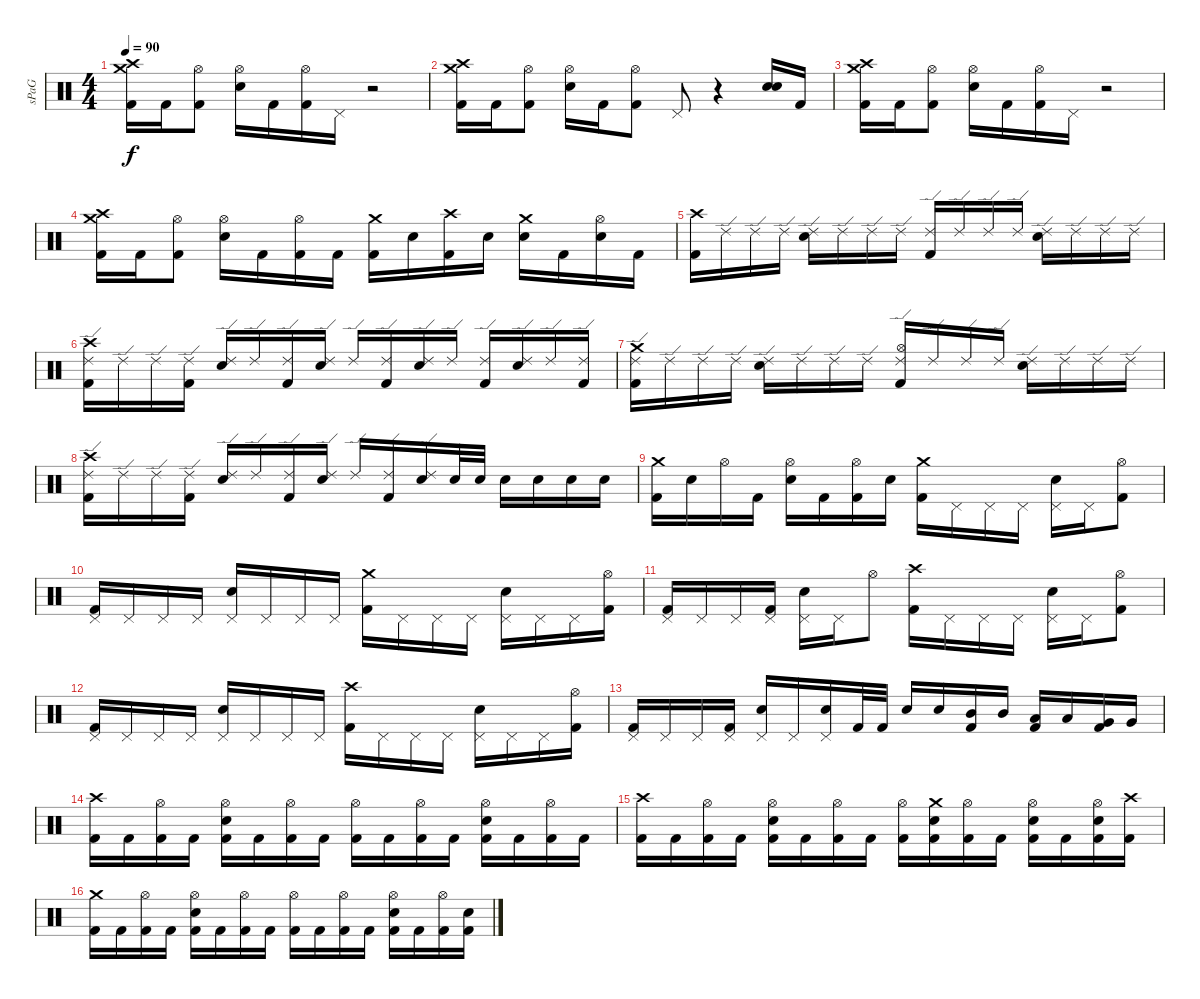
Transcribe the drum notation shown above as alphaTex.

\track ("sPaG" "sPaG") {instrument percussion}
\staff {score}
\articulation defaults
\ts (4 4)
\tempo 90
\clef neutral
\ks c
("Crash medium (hit)" "Crash high (hit)" "Kick (hit) 2").16{dy f} "Kick (hit) 2".16 ("Hi-Hat (open)" "Kick (hit) 2").8 ("Hi-Hat (open)" "Snare (hit) 2").16 "Kick (hit) 2".16 ("Hi-Hat (open)" "Kick (hit) 2").16 "Pedal Hi-Hat (hit)".16 r.2 |
("Crash medium (hit)" "Crash high (hit)" "Kick (hit) 2").16 "Kick (hit) 2".16 ("Hi-Hat (open)" "Kick (hit) 2").8 ("Hi-Hat (open)" "Snare (hit) 2").16 "Kick (hit) 2".16 ("Hi-Hat (open)" "Kick (hit) 2").8 "Pedal Hi-Hat (hit)".8 r.4 ("Snare (hit) 2" "Snare (hit) 2").16 "Kick (hit) 2".16 |
("Crash medium (hit)" "Crash high (hit)" "Kick (hit) 2").16 "Kick (hit) 2".16 ("Hi-Hat (open)" "Kick (hit) 2").8 ("Hi-Hat (open)" "Snare (hit) 2").16 "Kick (hit) 2".16 ("Hi-Hat (open)" "Kick (hit) 2").16 "Pedal Hi-Hat (hit)".16 r.2 |
("Crash medium (hit)" "Crash high (hit)" "Kick (hit) 2").16 "Kick (hit) 2".16 ("Hi-Hat (open)" "Kick (hit) 2").8 ("Hi-Hat (open)" "Snare (hit) 2").16 "Kick (hit) 2".16 ("Hi-Hat (open)" "Kick (hit) 2").16 "Kick (hit) 2".16 ("Crash medium (hit)" "Kick (hit) 2").16 "Snare (hit) 2".16 ("Crash high (hit)" "Kick (hit) 2").16 "Snare (hit) 2".16 ("Crash medium (hit)" "Snare (hit) 2").16 "Kick (hit) 2".16 ("Hi-Hat (open)" "Snare (hit) 2").16 "Kick (hit) 2".16 |
("Crash high (hit)" "Kick (hit) 2").16 "Ride (edge) 2".16 "Ride (edge) 2".16 "Ride (edge) 2".16 ("Ride (edge) 2" "Snare (hit) 2").16 "Ride (edge) 2".16 "Ride (edge) 2".16 "Ride (edge) 2".16 ("Ride (edge) 2" "Kick (hit) 2").16 "Ride (edge) 2".16 "Ride (edge) 2".16 "Ride (edge) 2".16 ("Ride (edge) 2" "Snare (hit) 2").16 "Ride (edge) 2".16 "Ride (edge) 2".16 "Ride (edge) 2".16 |
("Crash high (hit)" "Ride (edge) 2" "Kick (hit) 2").16 "Ride (edge) 2".16 "Ride (edge) 2".16 ("Ride (edge) 2" "Kick (hit) 2").16 ("Ride (edge) 2" "Snare (hit) 2").16 "Ride (edge) 2".16 ("Ride (edge) 2" "Kick (hit) 2").16 ("Ride (edge) 2" "Snare (hit) 2").16 "Ride (edge) 2".16 ("Ride (edge) 2" "Kick (hit) 2").16 ("Ride (edge) 2" "Snare (hit) 2").16 "Ride (edge) 2".16 ("Ride (edge) 2" "Kick (hit) 2").16 ("Ride (edge) 2" "Snare (hit) 2").16 "Ride (edge) 2".16 ("Ride (edge) 2" "Kick (hit) 2").16 |
("Crash medium (hit)" "Ride (edge) 2" "Kick (hit) 2").16 "Ride (edge) 2".16 "Ride (edge) 2".16 "Ride (edge) 2".16 ("Ride (edge) 2" "Snare (hit) 2").16 "Ride (edge) 2".16 "Ride (edge) 2".16 "Ride (edge) 2".16 ("Hi-Hat (open)" "Ride (edge) 2" "Kick (hit) 2").16 "Ride (edge) 2".16 "Ride (edge) 2".16 "Ride (edge) 2".16 ("Ride (edge) 2" "Snare (hit) 2").16 "Ride (edge) 2".16 "Ride (edge) 2".16 "Ride (edge) 2".16 |
("Crash high (hit)" "Ride (edge) 2" "Kick (hit) 2").16 "Ride (edge) 2".16 "Ride (edge) 2".16 ("Ride (edge) 2" "Kick (hit) 2").16 ("Ride (edge) 2" "Snare (hit) 2").16 "Ride (edge) 2".16 ("Ride (edge) 2" "Kick (hit) 2").16 ("Ride (edge) 2" "Snare (hit) 2").16 "Ride (edge) 2".16 ("Ride (edge) 2" "Kick (hit) 2").16 ("Ride (edge) 2" "Snare (hit) 2").16 "Snare (hit) 2".32 "Snare (hit) 2".32 "Snare (hit) 2".16 "Snare (hit) 2".16 "Snare (hit) 2".16 "Snare (hit) 2".16 |
("Crash medium (hit)" "Kick (hit) 2").16 "Snare (hit) 2".16 "Hi-Hat (open)".16 "Kick (hit) 2".16 ("Hi-Hat (open)" "Snare (hit) 2").16 "Kick (hit) 2".16 ("Hi-Hat (open)" "Kick (hit) 2").16 "Snare (hit) 2".16 ("Crash medium (hit)" "Kick (hit) 2").16 "Pedal Hi-Hat (hit)".16 "Pedal Hi-Hat (hit)".16 "Pedal Hi-Hat (hit)".16 ("Pedal Hi-Hat (hit)" "Snare (hit) 2").16 "Pedal Hi-Hat (hit)".16 ("Hi-Hat (open)" "Kick (hit) 2").8 |
("Pedal Hi-Hat (hit)" "Kick (hit) 2").16 "Pedal Hi-Hat (hit)".16 "Pedal Hi-Hat (hit)".16 "Pedal Hi-Hat (hit)".16 ("Pedal Hi-Hat (hit)" "Snare (hit) 2").16 "Pedal Hi-Hat (hit)".16 "Pedal Hi-Hat (hit)".16 "Pedal Hi-Hat (hit)".16 ("Crash medium (hit)" "Kick (hit) 2").16 "Pedal Hi-Hat (hit)".16 "Pedal Hi-Hat (hit)".16 "Pedal Hi-Hat (hit)".16 ("Pedal Hi-Hat (hit)" "Snare (hit) 2").16 "Pedal Hi-Hat (hit)".16 "Pedal Hi-Hat (hit)".16 ("Hi-Hat (open)" "Kick (hit) 2").16 |
("Pedal Hi-Hat (hit)" "Kick (hit) 2").16 "Pedal Hi-Hat (hit)".16 "Pedal Hi-Hat (hit)".16 ("Pedal Hi-Hat (hit)" "Kick (hit) 2").16 ("Pedal Hi-Hat (hit)" "Snare (hit) 2").16 "Pedal Hi-Hat (hit)".16 "Hi-Hat (open)".8 ("Crash high (hit)" "Kick (hit) 2").16 "Pedal Hi-Hat (hit)".16 "Pedal Hi-Hat (hit)".16 "Pedal Hi-Hat (hit)".16 ("Pedal Hi-Hat (hit)" "Snare (hit) 2").16 "Pedal Hi-Hat (hit)".16 ("Hi-Hat (open)" "Kick (hit) 2").8 |
("Pedal Hi-Hat (hit)" "Kick (hit) 2").16 "Pedal Hi-Hat (hit)".16 "Pedal Hi-Hat (hit)".16 "Pedal Hi-Hat (hit)".16 ("Pedal Hi-Hat (hit)" "Snare (hit) 2").16 "Pedal Hi-Hat (hit)".16 "Pedal Hi-Hat (hit)".16 "Pedal Hi-Hat (hit)".16 ("Crash high (hit)" "Kick (hit) 2").16 "Pedal Hi-Hat (hit)".16 "Pedal Hi-Hat (hit)".16 "Pedal Hi-Hat (hit)".16 ("Pedal Hi-Hat (hit)" "Snare (hit) 2").16 "Pedal Hi-Hat (hit)".16 "Pedal Hi-Hat (hit)".16 ("Hi-Hat (open)" "Kick (hit) 2").16 |
("Pedal Hi-Hat (hit)" "Kick (hit) 2").16 "Pedal Hi-Hat (hit)".16 "Pedal Hi-Hat (hit)".16 ("Pedal Hi-Hat (hit)" "Kick (hit) 2").16 ("Pedal Hi-Hat (hit)" "Snare (hit) 2").16 "Pedal Hi-Hat (hit)".16 ("Pedal Hi-Hat (hit)" "Snare (hit) 2").16 "Kick (hit) 2".32 "Kick (hit) 2".32 "Snare (hit) 2".16 "Snare (hit) 2".16 ("Mid Tom (hit)" "Kick (hit) 2").16 "Mid Tom (hit)".16 ("Low Tom (hit)" "Kick (hit) 2").16 "Low Tom (hit)".16 ("Very Low Tom (hit)" "Kick (hit) 2").16 "Very Low Tom (hit)".16 |
("Crash high (hit)" "Kick (hit) 2").16 "Kick (hit) 2".16 ("Hi-Hat (open)" "Kick (hit) 2").16 "Kick (hit) 2".16 ("Hi-Hat (open)" "Snare (hit) 2" "Kick (hit) 2").16 "Kick (hit) 2".16 ("Hi-Hat (open)" "Kick (hit) 2").16 "Kick (hit) 2".16 ("Hi-Hat (open)" "Kick (hit) 2").16 "Kick (hit) 2".16 ("Hi-Hat (open)" "Kick (hit) 2").16 "Kick (hit) 2".16 ("Hi-Hat (open)" "Snare (hit) 2" "Kick (hit) 2").16 "Kick (hit) 2".16 ("Hi-Hat (open)" "Kick (hit) 2").16 "Kick (hit) 2".16 |
("Crash high (hit)" "Kick (hit) 2").16 "Kick (hit) 2".16 ("Hi-Hat (open)" "Kick (hit) 2").16 "Kick (hit) 2".16 ("Hi-Hat (open)" "Snare (hit) 2" "Kick (hit) 2").16 "Kick (hit) 2".16 ("Hi-Hat (open)" "Kick (hit) 2").16 "Kick (hit) 2".16 ("Hi-Hat (open)" "Kick (hit) 2").16 ("Crash medium (hit)" "Snare (hit) 2" "Kick (hit) 2").16 ("Hi-Hat (open)" "Kick (hit) 2").16 "Kick (hit) 2".16 ("Hi-Hat (open)" "Snare (hit) 2" "Kick (hit) 2").16 "Kick (hit) 2".16 ("Hi-Hat (open)" "Snare (hit) 2" "Kick (hit) 2").16 ("Crash high (hit)" "Kick (hit) 2").16 |
("Crash medium (hit)" "Kick (hit) 2").16 "Kick (hit) 2".16 ("Hi-Hat (open)" "Kick (hit) 2").16 "Kick (hit) 2".16 ("Hi-Hat (open)" "Snare (hit) 2" "Kick (hit) 2").16 "Kick (hit) 2".16 ("Hi-Hat (open)" "Kick (hit) 2").16 "Kick (hit) 2".16 ("Hi-Hat (open)" "Kick (hit) 2").16 "Kick (hit) 2".16 ("Hi-Hat (open)" "Kick (hit) 2").16 "Kick (hit) 2".16 ("Hi-Hat (open)" "Snare (hit) 2" "Kick (hit) 2").16 "Kick (hit) 2".16 ("Hi-Hat (open)" "Kick (hit) 2").16 ("Snare (hit) 2" "Kick (hit) 2").16
